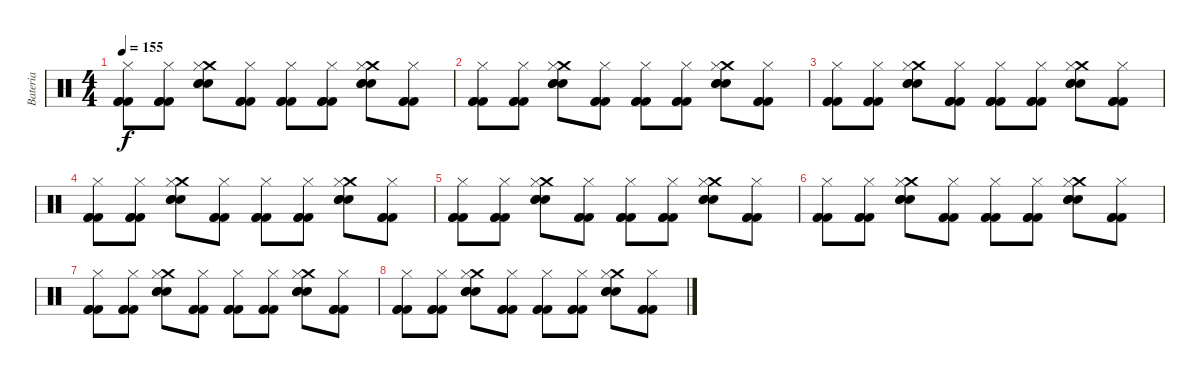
\track ("Bateria" "Bateria") {instrument percussion}
\staff {score}
\articulation defaults
\ts (4 4)
\tempo 155
\clef neutral
\ks c
("Kick (hit) 2" "Kick (hit) 2" "Kick (hit) 2" "Hi-Hat (closed)").8{dy f} ("Kick (hit) 2" "Kick (hit) 2" "Kick (hit) 2" "Hi-Hat (closed)").8 ("Snare (hit) 2" "Snare (hit) 2" "Snare (hit) 2" "Crash medium (hit)" "Hi-Hat (closed)").8 ("Kick (hit) 2" "Kick (hit) 2" "Kick (hit) 2" "Hi-Hat (closed)").8 ("Kick (hit) 2" "Kick (hit) 2" "Kick (hit) 2" "Hi-Hat (closed)").8 ("Kick (hit) 2" "Kick (hit) 2" "Kick (hit) 2" "Hi-Hat (closed)").8 ("Snare (hit) 2" "Snare (hit) 2" "Snare (hit) 2" "Crash medium (hit)" "Hi-Hat (closed)").8 ("Kick (hit) 2" "Kick (hit) 2" "Kick (hit) 2" "Hi-Hat (closed)").8 |
("Kick (hit) 2" "Kick (hit) 2" "Kick (hit) 2" "Hi-Hat (closed)").8 ("Kick (hit) 2" "Kick (hit) 2" "Kick (hit) 2" "Hi-Hat (closed)").8 ("Snare (hit) 2" "Snare (hit) 2" "Snare (hit) 2" "Crash medium (hit)" "Hi-Hat (closed)").8 ("Kick (hit) 2" "Kick (hit) 2" "Kick (hit) 2" "Hi-Hat (closed)").8 ("Kick (hit) 2" "Kick (hit) 2" "Kick (hit) 2" "Hi-Hat (closed)").8 ("Kick (hit) 2" "Kick (hit) 2" "Kick (hit) 2" "Hi-Hat (closed)").8 ("Snare (hit) 2" "Snare (hit) 2" "Snare (hit) 2" "Crash medium (hit)" "Hi-Hat (closed)").8 ("Kick (hit) 2" "Kick (hit) 2" "Kick (hit) 2" "Hi-Hat (closed)").8 |
("Kick (hit) 2" "Kick (hit) 2" "Kick (hit) 2" "Hi-Hat (closed)").8 ("Kick (hit) 2" "Kick (hit) 2" "Kick (hit) 2" "Hi-Hat (closed)").8 ("Snare (hit) 2" "Snare (hit) 2" "Snare (hit) 2" "Crash medium (hit)" "Hi-Hat (closed)").8 ("Kick (hit) 2" "Kick (hit) 2" "Kick (hit) 2" "Hi-Hat (closed)").8 ("Kick (hit) 2" "Kick (hit) 2" "Kick (hit) 2" "Hi-Hat (closed)").8 ("Kick (hit) 2" "Kick (hit) 2" "Kick (hit) 2" "Hi-Hat (closed)").8 ("Snare (hit) 2" "Snare (hit) 2" "Snare (hit) 2" "Crash medium (hit)" "Hi-Hat (closed)").8 ("Kick (hit) 2" "Kick (hit) 2" "Kick (hit) 2" "Hi-Hat (closed)").8 |
("Kick (hit) 2" "Kick (hit) 2" "Kick (hit) 2" "Hi-Hat (closed)").8 ("Kick (hit) 2" "Kick (hit) 2" "Kick (hit) 2" "Hi-Hat (closed)").8 ("Snare (hit) 2" "Snare (hit) 2" "Snare (hit) 2" "Crash medium (hit)" "Hi-Hat (closed)").8 ("Kick (hit) 2" "Kick (hit) 2" "Kick (hit) 2" "Hi-Hat (closed)").8 ("Kick (hit) 2" "Kick (hit) 2" "Kick (hit) 2" "Hi-Hat (closed)").8 ("Kick (hit) 2" "Kick (hit) 2" "Kick (hit) 2" "Hi-Hat (closed)").8 ("Snare (hit) 2" "Snare (hit) 2" "Snare (hit) 2" "Crash medium (hit)" "Hi-Hat (closed)").8 ("Kick (hit) 2" "Kick (hit) 2" "Kick (hit) 2" "Hi-Hat (closed)").8 |
("Kick (hit) 2" "Kick (hit) 2" "Kick (hit) 2" "Hi-Hat (closed)").8 ("Kick (hit) 2" "Kick (hit) 2" "Kick (hit) 2" "Hi-Hat (closed)").8 ("Snare (hit) 2" "Snare (hit) 2" "Snare (hit) 2" "Crash medium (hit)" "Hi-Hat (closed)").8 ("Kick (hit) 2" "Kick (hit) 2" "Kick (hit) 2" "Hi-Hat (closed)").8 ("Kick (hit) 2" "Kick (hit) 2" "Kick (hit) 2" "Hi-Hat (closed)").8 ("Kick (hit) 2" "Kick (hit) 2" "Kick (hit) 2" "Hi-Hat (closed)").8 ("Snare (hit) 2" "Snare (hit) 2" "Snare (hit) 2" "Crash medium (hit)" "Hi-Hat (closed)").8 ("Kick (hit) 2" "Kick (hit) 2" "Kick (hit) 2" "Hi-Hat (closed)").8 |
("Kick (hit) 2" "Kick (hit) 2" "Kick (hit) 2" "Hi-Hat (closed)").8 ("Kick (hit) 2" "Kick (hit) 2" "Kick (hit) 2" "Hi-Hat (closed)").8 ("Snare (hit) 2" "Snare (hit) 2" "Snare (hit) 2" "Crash medium (hit)" "Hi-Hat (closed)").8 ("Kick (hit) 2" "Kick (hit) 2" "Kick (hit) 2" "Hi-Hat (closed)").8 ("Kick (hit) 2" "Kick (hit) 2" "Kick (hit) 2" "Hi-Hat (closed)").8 ("Kick (hit) 2" "Kick (hit) 2" "Kick (hit) 2" "Hi-Hat (closed)").8 ("Snare (hit) 2" "Snare (hit) 2" "Snare (hit) 2" "Crash medium (hit)" "Hi-Hat (closed)").8 ("Kick (hit) 2" "Kick (hit) 2" "Kick (hit) 2" "Hi-Hat (closed)").8 |
("Kick (hit) 2" "Kick (hit) 2" "Kick (hit) 2" "Hi-Hat (closed)").8 ("Kick (hit) 2" "Kick (hit) 2" "Kick (hit) 2" "Hi-Hat (closed)").8 ("Snare (hit) 2" "Snare (hit) 2" "Snare (hit) 2" "Crash medium (hit)" "Hi-Hat (closed)").8 ("Kick (hit) 2" "Kick (hit) 2" "Kick (hit) 2" "Hi-Hat (closed)").8 ("Kick (hit) 2" "Kick (hit) 2" "Kick (hit) 2" "Hi-Hat (closed)").8 ("Kick (hit) 2" "Kick (hit) 2" "Kick (hit) 2" "Hi-Hat (closed)").8 ("Snare (hit) 2" "Snare (hit) 2" "Snare (hit) 2" "Crash medium (hit)" "Hi-Hat (closed)").8 ("Kick (hit) 2" "Kick (hit) 2" "Kick (hit) 2" "Hi-Hat (closed)").8 |
("Kick (hit) 2" "Kick (hit) 2" "Kick (hit) 2" "Hi-Hat (closed)").8 ("Kick (hit) 2" "Kick (hit) 2" "Kick (hit) 2" "Hi-Hat (closed)").8 ("Snare (hit) 2" "Snare (hit) 2" "Snare (hit) 2" "Crash medium (hit)" "Hi-Hat (closed)").8 ("Kick (hit) 2" "Kick (hit) 2" "Kick (hit) 2" "Hi-Hat (closed)").8 ("Kick (hit) 2" "Kick (hit) 2" "Kick (hit) 2" "Hi-Hat (closed)").8 ("Kick (hit) 2" "Kick (hit) 2" "Kick (hit) 2" "Hi-Hat (closed)").8 ("Snare (hit) 2" "Snare (hit) 2" "Snare (hit) 2" "Crash medium (hit)" "Hi-Hat (closed)").8 ("Kick (hit) 2" "Kick (hit) 2" "Kick (hit) 2" "Hi-Hat (closed)").8
